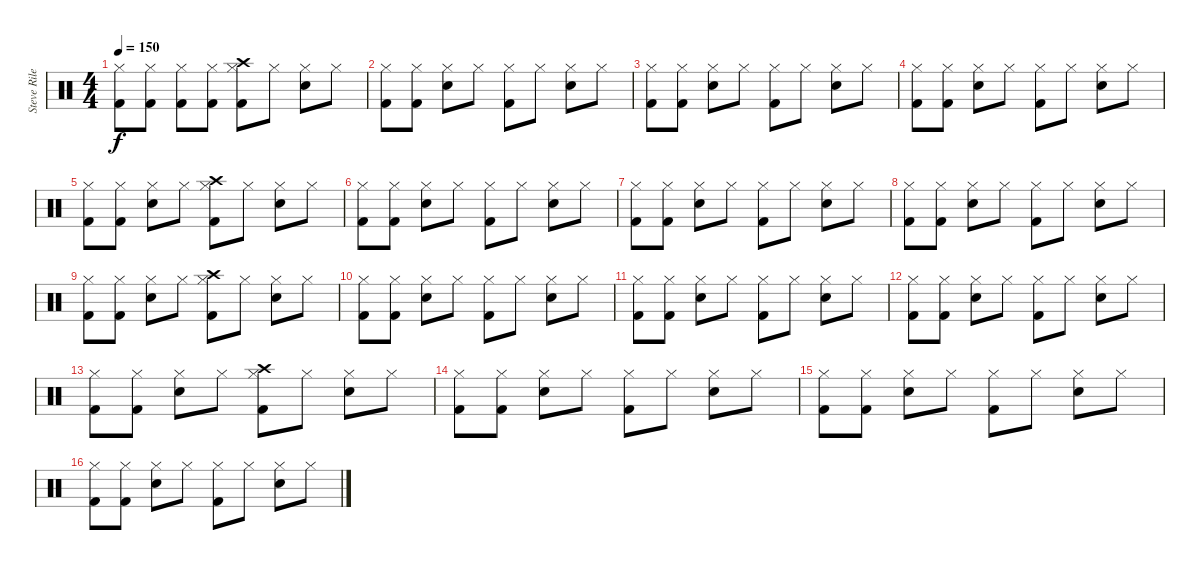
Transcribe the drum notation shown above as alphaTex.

\track ("Steve Riley-Drums" "Steve Rile") {instrument percussion}
\staff {score}
\articulation defaults
\ts (4 4)
\tempo 150
\clef neutral
\ks c
("Kick (hit) 2" "Hi-Hat (closed)").8{dy f} ("Kick (hit) 2" "Hi-Hat (closed)").8 ("Kick (hit) 2" "Hi-Hat (closed)").8 ("Kick (hit) 2" "Hi-Hat (closed)").8 ("Crash high (hit)" "Kick (hit) 2" "Hi-Hat (closed)").8 "Hi-Hat (closed)".8 ("Snare (hit) 2" "Hi-Hat (closed)").8 "Hi-Hat (closed)".8 |
("Kick (hit) 2" "Hi-Hat (closed)").8 ("Kick (hit) 2" "Hi-Hat (closed)").8 ("Snare (hit) 2" "Hi-Hat (closed)").8 "Hi-Hat (closed)".8 ("Kick (hit) 2" "Hi-Hat (closed)").8 "Hi-Hat (closed)".8 ("Snare (hit) 2" "Hi-Hat (closed)").8 "Hi-Hat (closed)".8 |
("Kick (hit) 2" "Hi-Hat (closed)").8 ("Kick (hit) 2" "Hi-Hat (closed)").8 ("Snare (hit) 2" "Hi-Hat (closed)").8 "Hi-Hat (closed)".8 ("Kick (hit) 2" "Hi-Hat (closed)").8 "Hi-Hat (closed)".8 ("Snare (hit) 2" "Hi-Hat (closed)").8 "Hi-Hat (closed)".8 |
("Kick (hit) 2" "Hi-Hat (closed)").8 ("Kick (hit) 2" "Hi-Hat (closed)").8 ("Snare (hit) 2" "Hi-Hat (closed)").8 "Hi-Hat (closed)".8 ("Kick (hit) 2" "Hi-Hat (closed)").8 "Hi-Hat (closed)".8 ("Snare (hit) 2" "Hi-Hat (closed)").8 "Hi-Hat (closed)".8 |
("Kick (hit) 2" "Hi-Hat (closed)").8 ("Kick (hit) 2" "Hi-Hat (closed)").8 ("Snare (hit) 2" "Hi-Hat (closed)").8 "Hi-Hat (closed)".8 ("Crash high (hit)" "Kick (hit) 2" "Hi-Hat (closed)").8 "Hi-Hat (closed)".8 ("Snare (hit) 2" "Hi-Hat (closed)").8 "Hi-Hat (closed)".8 |
("Kick (hit) 2" "Hi-Hat (closed)").8 ("Kick (hit) 2" "Hi-Hat (closed)").8 ("Snare (hit) 2" "Hi-Hat (closed)").8 "Hi-Hat (closed)".8 ("Kick (hit) 2" "Hi-Hat (closed)").8 "Hi-Hat (closed)".8 ("Snare (hit) 2" "Hi-Hat (closed)").8 "Hi-Hat (closed)".8 |
("Kick (hit) 2" "Hi-Hat (closed)").8 ("Kick (hit) 2" "Hi-Hat (closed)").8 ("Snare (hit) 2" "Hi-Hat (closed)").8 "Hi-Hat (closed)".8 ("Kick (hit) 2" "Hi-Hat (closed)").8 "Hi-Hat (closed)".8 ("Snare (hit) 2" "Hi-Hat (closed)").8 "Hi-Hat (closed)".8 |
("Kick (hit) 2" "Hi-Hat (closed)").8 ("Kick (hit) 2" "Hi-Hat (closed)").8 ("Snare (hit) 2" "Hi-Hat (closed)").8 "Hi-Hat (closed)".8 ("Kick (hit) 2" "Hi-Hat (closed)").8 "Hi-Hat (closed)".8 ("Snare (hit) 2" "Hi-Hat (closed)").8 "Hi-Hat (closed)".8 |
("Kick (hit) 2" "Hi-Hat (closed)").8 ("Kick (hit) 2" "Hi-Hat (closed)").8 ("Snare (hit) 2" "Hi-Hat (closed)").8 "Hi-Hat (closed)".8 ("Crash high (hit)" "Kick (hit) 2" "Hi-Hat (closed)").8 "Hi-Hat (closed)".8 ("Snare (hit) 2" "Hi-Hat (closed)").8 "Hi-Hat (closed)".8 |
("Kick (hit) 2" "Hi-Hat (closed)").8 ("Kick (hit) 2" "Hi-Hat (closed)").8 ("Snare (hit) 2" "Hi-Hat (closed)").8 "Hi-Hat (closed)".8 ("Kick (hit) 2" "Hi-Hat (closed)").8 "Hi-Hat (closed)".8 ("Snare (hit) 2" "Hi-Hat (closed)").8 "Hi-Hat (closed)".8 |
("Kick (hit) 2" "Hi-Hat (closed)").8 ("Kick (hit) 2" "Hi-Hat (closed)").8 ("Snare (hit) 2" "Hi-Hat (closed)").8 "Hi-Hat (closed)".8 ("Kick (hit) 2" "Hi-Hat (closed)").8 "Hi-Hat (closed)".8 ("Snare (hit) 2" "Hi-Hat (closed)").8 "Hi-Hat (closed)".8 |
("Kick (hit) 2" "Hi-Hat (closed)").8 ("Kick (hit) 2" "Hi-Hat (closed)").8 ("Snare (hit) 2" "Hi-Hat (closed)").8 "Hi-Hat (closed)".8 ("Kick (hit) 2" "Hi-Hat (closed)").8 "Hi-Hat (closed)".8 ("Snare (hit) 2" "Hi-Hat (closed)").8 "Hi-Hat (closed)".8 |
("Kick (hit) 2" "Hi-Hat (closed)").8 ("Kick (hit) 2" "Hi-Hat (closed)").8 ("Snare (hit) 2" "Hi-Hat (closed)").8 "Hi-Hat (closed)".8 ("Crash high (hit)" "Kick (hit) 2" "Hi-Hat (closed)").8 "Hi-Hat (closed)".8 ("Snare (hit) 2" "Hi-Hat (closed)").8 "Hi-Hat (closed)".8 |
("Kick (hit) 2" "Hi-Hat (closed)").8 ("Kick (hit) 2" "Hi-Hat (closed)").8 ("Snare (hit) 2" "Hi-Hat (closed)").8 "Hi-Hat (closed)".8 ("Kick (hit) 2" "Hi-Hat (closed)").8 "Hi-Hat (closed)".8 ("Snare (hit) 2" "Hi-Hat (closed)").8 "Hi-Hat (closed)".8 |
("Kick (hit) 2" "Hi-Hat (closed)").8 ("Kick (hit) 2" "Hi-Hat (closed)").8 ("Snare (hit) 2" "Hi-Hat (closed)").8 "Hi-Hat (closed)".8 ("Kick (hit) 2" "Hi-Hat (closed)").8 "Hi-Hat (closed)".8 ("Snare (hit) 2" "Hi-Hat (closed)").8 "Hi-Hat (closed)".8 |
("Kick (hit) 2" "Hi-Hat (closed)").8 ("Kick (hit) 2" "Hi-Hat (closed)").8 ("Snare (hit) 2" "Hi-Hat (closed)").8 "Hi-Hat (closed)".8 ("Kick (hit) 2" "Hi-Hat (closed)").8 "Hi-Hat (closed)".8 ("Snare (hit) 2" "Hi-Hat (closed)").8 "Hi-Hat (closed)".8
